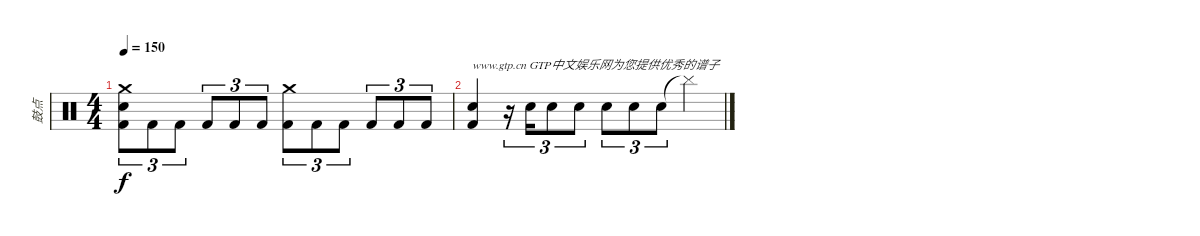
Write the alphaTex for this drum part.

\track ("鼓点" "鼓点") {instrument percussion}
\staff {score}
\articulation defaults
\ts (4 4)
\tempo 150
\clef neutral
\ks c
("Kick (hit) 2" "Snare (hit) 2" "Crash medium (hit)").8{tu (3 2) dy f} "Kick (hit) 2".8{tu (3 2)} "Kick (hit) 2".8{tu (3 2)} "Kick (hit) 2".8{tu (3 2)} "Kick (hit) 2".8{tu (3 2)} "Kick (hit) 2".8{tu (3 2)} ("Kick (hit) 2" "Crash medium (hit)").8{tu (3 2)} "Kick (hit) 2".8{tu (3 2)} "Kick (hit) 2".8{tu (3 2)} "Kick (hit) 2".8{tu (3 2)} "Kick (hit) 2".8{tu (3 2)} "Kick (hit) 2".8{tu (3 2)} |
("Kick (hit) 2" "Snare (hit) 2").4{txt "www.gtp.cn GTP中文娱乐网为您提供优秀的谱子"} r.16{tu (3 2)} "Snare (hit) 2".16{tu (3 2)} "Snare (hit) 2".8{tu (3 2)} "Snare (hit) 2".8{tu (3 2)} "Snare (hit) 2".8{tu (3 2)} "Snare (hit) 2".8{tu (3 2)} "Snare (hit) 2".8{tu (3 2)} "Cymbal (hit)"{t}.4
